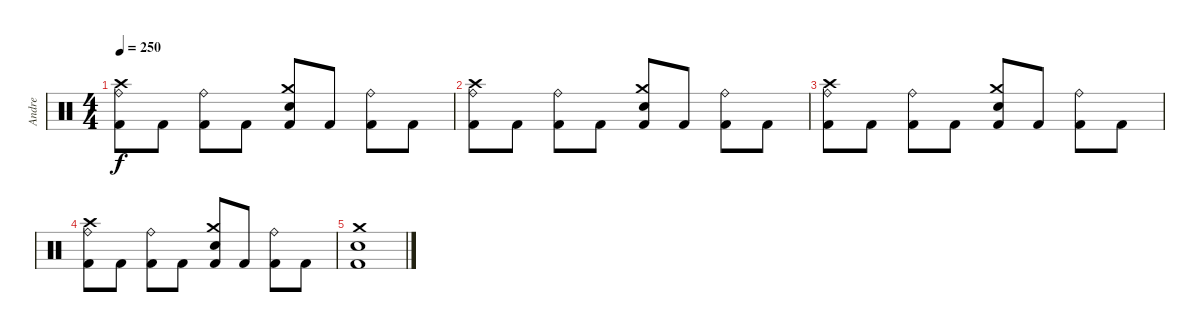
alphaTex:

\track ("Andre" "Andre") {instrument percussion}
\staff {score}
\articulation defaults
\ts (4 4)
\tempo 250
\clef neutral
\ks c
("Crash high (hit)" "Ride (bell)" "Kick (hit) 2").8{dy f} "Kick (hit) 2".8 ("Ride (bell)" "Kick (hit) 2").8 "Kick (hit) 2".8 ("Crash medium (hit)" "Snare (hit) 2" "Kick (hit) 2").8 "Kick (hit) 2".8 ("Ride (bell)" "Kick (hit) 2").8 "Kick (hit) 2".8 |
("Crash high (hit)" "Ride (bell)" "Kick (hit) 2").8 "Kick (hit) 2".8 ("Ride (bell)" "Kick (hit) 2").8 "Kick (hit) 2".8 ("Crash medium (hit)" "Snare (hit) 2" "Kick (hit) 2").8 "Kick (hit) 2".8 ("Ride (bell)" "Kick (hit) 2").8 "Kick (hit) 2".8 |
("Crash high (hit)" "Ride (bell)" "Kick (hit) 2").8 "Kick (hit) 2".8 ("Ride (bell)" "Kick (hit) 2").8 "Kick (hit) 2".8 ("Crash medium (hit)" "Snare (hit) 2" "Kick (hit) 2").8 "Kick (hit) 2".8 ("Ride (bell)" "Kick (hit) 2").8 "Kick (hit) 2".8 |
("Crash high (hit)" "Ride (bell)" "Kick (hit) 2").8 "Kick (hit) 2".8 ("Ride (bell)" "Kick (hit) 2").8 "Kick (hit) 2".8 ("Crash medium (hit)" "Snare (hit) 2" "Kick (hit) 2").8 "Kick (hit) 2".8 ("Ride (bell)" "Kick (hit) 2").8 "Kick (hit) 2".8 |
("Crash medium (hit)" "Snare (hit) 2" "Kick (hit) 2").1
